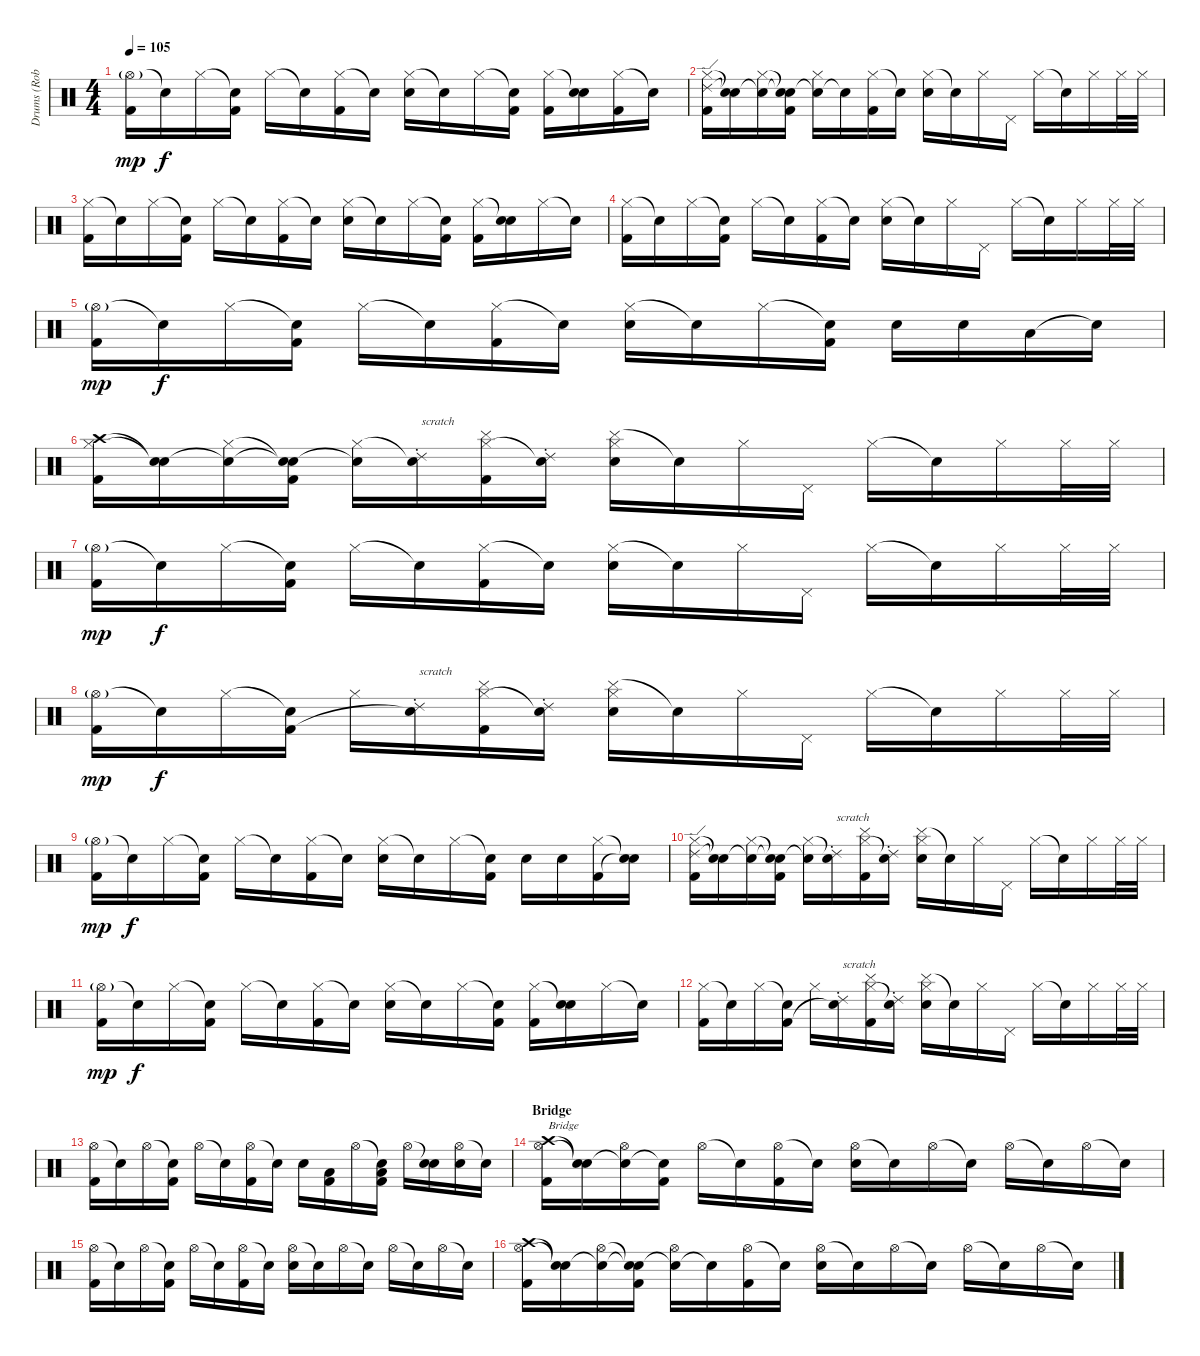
\track ("Drums (Rob Bourdon)" "Drums (Rob") {instrument percussion}
\staff {score}
\articulation defaults
\ts (4 4)
\tempo 105
\clef neutral
\ks c
("Hi-Hat (open)"{g} "Kick (hit) 2").16{dy mp} "Snare (hit)"{t}.16{dy f} "Hi-Hat (closed)".16 ("Snare (hit)"{t} "Kick (hit) 2").16 "Hi-Hat (closed)".16 "Snare (hit)"{t}.16 ("Hi-Hat (closed)" "Kick (hit) 2").16 "Snare (hit)"{t}.16 ("Hi-Hat (closed)" "Electric Snare (hit)").16 "Snare (hit)"{t}.16 "Hi-Hat (closed)".16 ("Snare (hit)"{t} "Kick (hit) 2").16 ("Hi-Hat (closed)" "Kick (hit) 2").16 ("Snare (hit)"{t} "Electric Snare (hit)").16 ("Hi-Hat (closed)" "Kick (hit) 2").16 "Snare (hit)"{t}.16 |
("Ride (edge) 2" "Hi-Hat (closed)" "Kick (hit) 2").16 ("Snare (hit)"{t} "Snare (hit)"{t}).16 ("Snare (hit)"{t} "Hi-Hat (closed)").16 ("Snare (hit)"{t} "Snare (hit)"{t} "Kick (hit) 2").16 ("Snare (hit)"{t} "Hi-Hat (closed)").16 "Snare (hit)"{t}.16 ("Hi-Hat (closed)" "Kick (hit) 2").16 "Snare (hit)"{t}.16 ("Hi-Hat (closed)" "Electric Snare (hit)").16 "Snare (hit)"{t}.16 "Hi-Hat (closed)".16 "Pedal Hi-Hat (hit)".16 "Hi-Hat (closed)".16 "Snare (hit)"{t}.16 "Hi-Hat (closed)".16 "Hi-Hat (closed)".32 "Hi-Hat (closed)".32 |
("Hi-Hat (closed)" "Kick (hit) 2").16 "Snare (hit)"{t}.16 "Hi-Hat (closed)".16 ("Snare (hit)"{t} "Kick (hit) 2").16 "Hi-Hat (closed)".16 "Snare (hit)"{t}.16 ("Hi-Hat (closed)" "Kick (hit) 2").16 "Snare (hit)"{t}.16 ("Hi-Hat (closed)" "Electric Snare (hit)").16 "Snare (hit)"{t}.16 "Hi-Hat (closed)".16 ("Snare (hit)"{t} "Kick (hit) 2").16 ("Hi-Hat (closed)" "Kick (hit) 2").16 ("Snare (hit)"{t} "Electric Snare (hit)").16 "Hi-Hat (closed)".16 "Snare (hit)"{t}.16 |
("Hi-Hat (closed)" "Kick (hit) 2").16 "Snare (hit)"{t}.16 "Hi-Hat (closed)".16 ("Snare (hit)"{t} "Kick (hit) 2").16 "Hi-Hat (closed)".16 "Snare (hit)"{t}.16 ("Hi-Hat (closed)" "Kick (hit) 2").16 "Snare (hit)"{t}.16 ("Hi-Hat (closed)" "Electric Snare (hit)").16 "Snare (hit)"{t}.16 "Hi-Hat (closed)".16 "Pedal Hi-Hat (hit)".16 "Hi-Hat (closed)".16 "Snare (hit)"{t}.16 "Hi-Hat (closed)".16 "Hi-Hat (closed)".32 "Hi-Hat (closed)".32 |
("Hi-Hat (open)"{g} "Kick (hit) 2").16{dy mp} "Snare (hit)"{t}.16{dy f} "Hi-Hat (closed)".16 ("Snare (hit)"{t} "Kick (hit) 2").16 "Hi-Hat (closed)".16 "Snare (hit)"{t}.16 ("Hi-Hat (closed)" "Kick (hit) 2").16 "Snare (hit)"{t}.16 ("Hi-Hat (closed)" "Electric Snare (hit)").16 "Snare (hit)"{t}.16 "Hi-Hat (closed)".16 ("Snare (hit)"{t} "Kick (hit) 2").16 "Electric Snare (hit)".16 "Electric Snare (hit)".16 "Low Tom (hit)".16 "Snare (hit)"{t}.16 |
("Crash high (hit)" "Hi-Hat (closed)" "Kick (hit) 2").16 ("Snare (hit)"{t} "Snare (hit)"{t}).16 ("Snare (hit)"{t} "Hi-Hat (closed)").16 ("Snare (hit)"{t} "Snare (hit)"{t} "Kick (hit) 2").16 ("Snare (hit)"{t} "Hi-Hat (closed)").16 ("Ride (choke) 2" "Snare (hit)"{t}).16{txt "scratch"} ("Cymbal (hit)" "Hi-Hat (closed)" "Kick (hit) 2").16 ("Ride (choke) 2" "Snare (hit)"{t}).16 ("Cymbal (hit)" "Hi-Hat (closed)" "Electric Snare (hit)").16 "Snare (hit)"{t}.16 "Hi-Hat (closed)".16 "Pedal Hi-Hat (hit)".16 "Hi-Hat (closed)".16 "Snare (hit)"{t}.16 "Hi-Hat (closed)".16 "Hi-Hat (closed)".32 "Hi-Hat (closed)".32 |
("Hi-Hat (open)"{g} "Kick (hit) 2").16{dy mp} "Snare (hit)"{t}.16{dy f} "Hi-Hat (closed)".16 ("Snare (hit)"{t} "Kick (hit) 2").16 "Hi-Hat (closed)".16 "Snare (hit)"{t}.16 ("Hi-Hat (closed)" "Kick (hit) 2").16 "Snare (hit)"{t}.16 ("Hi-Hat (closed)" "Electric Snare (hit)").16 "Snare (hit)"{t}.16 "Hi-Hat (closed)".16 "Pedal Hi-Hat (hit)".16 "Hi-Hat (closed)".16 "Snare (hit)"{t}.16 "Hi-Hat (closed)".16 "Hi-Hat (closed)".32 "Hi-Hat (closed)".32 |
("Hi-Hat (open)"{g} "Kick (hit) 2").16{dy mp} "Snare (hit)"{t}.16{dy f} "Hi-Hat (closed)".16 ("Snare (hit)"{t} "Kick (hit) 2").16 "Hi-Hat (closed)".16 ("Ride (choke) 2" "Snare (hit)"{t}).16{txt "scratch"} ("Cymbal (hit)" "Hi-Hat (closed)" "Kick (hit) 2").16 ("Ride (choke) 2" "Snare (hit)"{t}).16 ("Cymbal (hit)" "Hi-Hat (closed)" "Electric Snare (hit)").16 "Snare (hit)"{t}.16 "Hi-Hat (closed)".16 "Pedal Hi-Hat (hit)".16 "Hi-Hat (closed)".16 "Snare (hit)"{t}.16 "Hi-Hat (closed)".16 "Hi-Hat (closed)".32 "Hi-Hat (closed)".32 |
("Hi-Hat (open)"{g} "Kick (hit) 2").16{dy mp} "Snare (hit)"{t}.16{dy f} "Hi-Hat (closed)".16 ("Snare (hit)"{t} "Kick (hit) 2").16 "Hi-Hat (closed)".16 "Snare (hit)"{t}.16 ("Hi-Hat (closed)" "Kick (hit) 2").16 "Snare (hit)"{t}.16 ("Hi-Hat (closed)" "Electric Snare (hit)").16 "Snare (hit)"{t}.16 "Hi-Hat (closed)".16 ("Snare (hit)"{t} "Kick (hit) 2").16 "Electric Snare (hit)".16 "Electric Snare (hit)".16 ("Hi-Hat (closed)" "Kick (hit) 2").16 ("Snare (hit)"{t} "Snare (hit)"{t}).16 |
("Ride (edge) 2" "Hi-Hat (closed)" "Kick (hit) 2").16 ("Snare (hit)"{t} "Snare (hit)"{t}).16 ("Snare (hit)"{t} "Hi-Hat (closed)").16 ("Snare (hit)"{t} "Snare (hit)"{t} "Kick (hit) 2").16 ("Snare (hit)"{t} "Hi-Hat (closed)").16 ("Ride (choke) 2" "Snare (hit)"{t}).16{txt "scratch"} ("Cymbal (hit)" "Hi-Hat (closed)" "Kick (hit) 2").16 ("Ride (choke) 2" "Snare (hit)"{t}).16 ("Cymbal (hit)" "Hi-Hat (closed)" "Electric Snare (hit)").16 "Snare (hit)"{t}.16 "Hi-Hat (closed)".16 "Pedal Hi-Hat (hit)".16 "Hi-Hat (closed)".16 "Snare (hit)"{t}.16 "Hi-Hat (closed)".16 "Hi-Hat (closed)".32 "Hi-Hat (closed)".32 |
("Hi-Hat (open)"{g} "Kick (hit) 2").16{dy mp} "Snare (hit)"{t}.16{dy f} "Hi-Hat (closed)".16 ("Snare (hit)"{t} "Kick (hit) 2").16 "Hi-Hat (closed)".16 "Snare (hit)"{t}.16 ("Hi-Hat (closed)" "Kick (hit) 2").16 "Snare (hit)"{t}.16 ("Hi-Hat (closed)" "Electric Snare (hit)").16 "Snare (hit)"{t}.16 "Hi-Hat (closed)".16 ("Snare (hit)"{t} "Kick (hit) 2").16 ("Hi-Hat (closed)" "Kick (hit) 2").16 ("Snare (hit)"{t} "Electric Snare (hit)").16 "Hi-Hat (closed)".16 "Snare (hit)"{t}.16 |
("Hi-Hat (closed)" "Kick (hit) 2").16 "Snare (hit)"{t}.16 "Hi-Hat (closed)".16 ("Snare (hit)"{t} "Kick (hit) 2").16 "Hi-Hat (closed)".16 ("Ride (choke) 2" "Snare (hit)"{t}).16{txt "scratch"} ("Cymbal (hit)" "Hi-Hat (closed)" "Kick (hit) 2").16 ("Ride (choke) 2" "Snare (hit)"{t}).16 ("Cymbal (hit)" "Hi-Hat (closed)" "Electric Snare (hit)").16 "Snare (hit)"{t}.16 "Hi-Hat (closed)".16 "Pedal Hi-Hat (hit)".16 "Hi-Hat (closed)".16 "Snare (hit)"{t}.16 "Hi-Hat (closed)".16 "Hi-Hat (closed)".32 "Hi-Hat (closed)".32 |
("Hi-Hat (open)" "Kick (hit) 2").16 "Snare (hit)"{t}.16 "Hi-Hat (open)".16 ("Snare (hit)"{t} "Kick (hit) 2").16 "Hi-Hat (open)".16 "Snare (hit)"{t}.16 ("Hi-Hat (open)" "Kick (hit) 2").16 "Snare (hit)"{t}.16 "Electric Snare (hit)".16 ("Low Tom (hit)" "Kick (hit) 2").16 "Hi-Hat (open)".16 ("Snare (hit)"{t} "Low Tom (hit)" "Kick (hit) 2").16 "Hi-Hat (open)".16 ("Snare (hit)"{t} "Electric Snare (hit)").16 ("Hi-Hat (open)" "Electric Snare (hit)").16 "Snare (hit)"{t}.16 |
\section ("" "Bridge")
("Crash high (hit)" "Hi-Hat (open)" "Kick (hit) 2").16{txt "Bridge"} ("Snare (hit)"{t} "Snare (hit)"{t}).16 ("Snare (hit)"{t} "Hi-Hat (open)").16 ("Snare (hit)"{t} "Kick (hit) 2").16 "Hi-Hat (open)".16 "Snare (hit)"{t}.16 ("Hi-Hat (open)" "Kick (hit) 2").16 "Snare (hit)"{t}.16 ("Hi-Hat (open)" "Electric Snare (hit)").16 "Snare (hit)"{t}.16 "Hi-Hat (open)".16 "Snare (hit)"{t}.16 "Hi-Hat (open)".16 "Snare (hit)"{t}.16 "Hi-Hat (open)".16 "Snare (hit)"{t}.16 |
("Hi-Hat (open)" "Kick (hit) 2").16 "Snare (hit)"{t}.16 "Hi-Hat (open)".16 ("Snare (hit)"{t} "Kick (hit) 2").16 "Hi-Hat (open)".16 "Snare (hit)"{t}.16 ("Hi-Hat (open)" "Kick (hit) 2").16 "Snare (hit)"{t}.16 ("Hi-Hat (open)" "Electric Snare (hit)").16 "Snare (hit)"{t}.16 "Hi-Hat (open)".16 "Snare (hit)"{t}.16 "Hi-Hat (open)".16 "Snare (hit)"{t}.16 "Hi-Hat (open)".16 "Snare (hit)"{t}.16 |
("Crash high (hit)" "Hi-Hat (open)" "Kick (hit) 2").16{volume 12} ("Snare (hit)"{t} "Snare (hit)"{t}).16 ("Snare (hit)"{t} "Hi-Hat (open)").16 ("Snare (hit)"{t} "Snare (hit)"{t} "Kick (hit) 2").16 ("Snare (hit)"{t} "Hi-Hat (open)").16 "Snare (hit)"{t}.16 ("Hi-Hat (open)" "Kick (hit) 2").16 "Snare (hit)"{t}.16 ("Hi-Hat (open)" "Electric Snare (hit)").16 "Snare (hit)"{t}.16 "Hi-Hat (open)".16 "Snare (hit)"{t}.16 "Hi-Hat (open)".16 "Snare (hit)"{t}.16 "Hi-Hat (open)".16 "Snare (hit)"{t}.16
